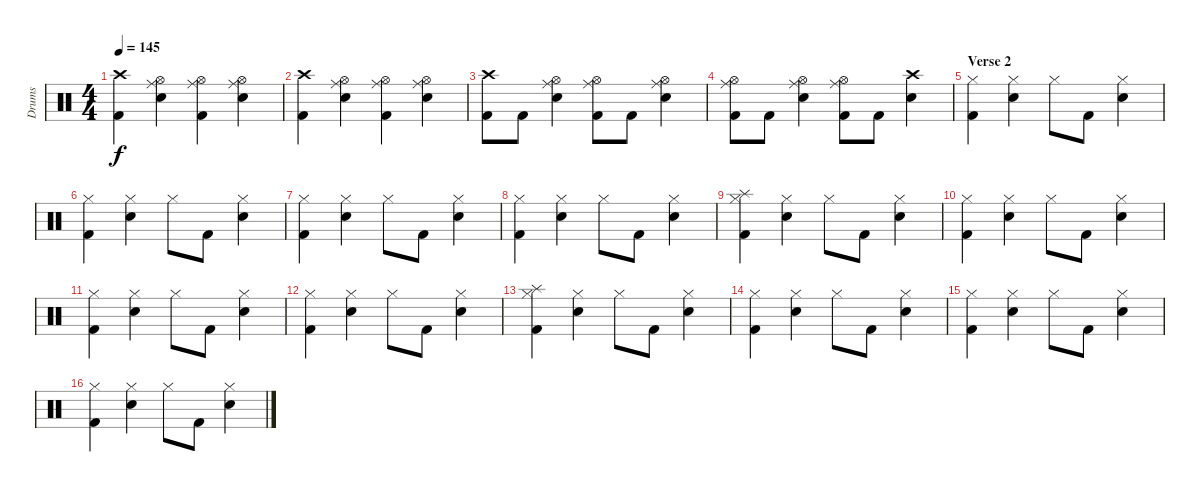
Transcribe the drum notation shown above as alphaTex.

\track ("Drums" "Drums") {instrument percussion}
\staff {score}
\articulation defaults
\ts (4 4)
\tempo 145
\clef neutral
\ks c
("Crash high (hit)" "Kick (hit) 2").4{dy f} ("Hi-Hat (open)" "Ride (middle)" "Snare (hit) 2").4 ("Hi-Hat (open)" "Ride (middle)" "Kick (hit) 2").4 ("Hi-Hat (open)" "Ride (middle)" "Snare (hit) 2").4 |
("Crash high (hit)" "Kick (hit) 2").4 ("Hi-Hat (open)" "Ride (middle)" "Snare (hit) 2").4 ("Hi-Hat (open)" "Ride (middle)" "Kick (hit) 2").4 ("Hi-Hat (open)" "Ride (middle)" "Snare (hit) 2").4 |
("Crash high (hit)" "Kick (hit) 2").8 "Kick (hit) 2".8 ("Hi-Hat (open)" "Ride (middle)" "Snare (hit) 2").4 ("Hi-Hat (open)" "Ride (middle)" "Kick (hit) 2").8 "Kick (hit) 2".8 ("Hi-Hat (open)" "Ride (middle)" "Snare (hit) 2").4 |
("Hi-Hat (open)" "Ride (middle)" "Kick (hit) 2").8 "Kick (hit) 2".8 ("Hi-Hat (open)" "Ride (middle)" "Snare (hit) 2").4 ("Hi-Hat (open)" "Ride (middle)" "Kick (hit) 2").8 "Kick (hit) 2".8 ("Crash high (hit)" "Snare (hit) 2").4 |
\section ("" "Verse 2")
("Hi-Hat (closed)" "Kick (hit) 2").4 ("Hi-Hat (closed)" "Snare (hit) 2").4 "Hi-Hat (closed)".8 "Kick (hit) 2".8 ("Hi-Hat (closed)" "Snare (hit) 2").4 |
("Hi-Hat (closed)" "Kick (hit) 2").4 ("Hi-Hat (closed)" "Snare (hit) 2").4 "Hi-Hat (closed)".8 "Kick (hit) 2".8 ("Hi-Hat (closed)" "Snare (hit) 2").4 |
("Hi-Hat (closed)" "Kick (hit) 2").4 ("Hi-Hat (closed)" "Snare (hit) 2").4 "Hi-Hat (closed)".8 "Kick (hit) 2".8 ("Hi-Hat (closed)" "Snare (hit) 2").4 |
("Hi-Hat (closed)" "Kick (hit) 2").4 ("Hi-Hat (closed)" "Snare (hit) 2").4 "Hi-Hat (closed)".8 "Kick (hit) 2".8 ("Hi-Hat (closed)" "Snare (hit) 2").4 |
("Splash (hit)" "Hi-Hat (closed)" "Kick (hit) 2").4 ("Hi-Hat (closed)" "Snare (hit) 2").4 "Hi-Hat (closed)".8 "Kick (hit) 2".8 ("Hi-Hat (closed)" "Snare (hit) 2").4 |
("Hi-Hat (closed)" "Kick (hit) 2").4 ("Hi-Hat (closed)" "Snare (hit) 2").4 "Hi-Hat (closed)".8 "Kick (hit) 2".8 ("Hi-Hat (closed)" "Snare (hit) 2").4 |
("Hi-Hat (closed)" "Kick (hit) 2").4 ("Hi-Hat (closed)" "Snare (hit) 2").4 "Hi-Hat (closed)".8 "Kick (hit) 2".8 ("Hi-Hat (closed)" "Snare (hit) 2").4 |
("Hi-Hat (closed)" "Kick (hit) 2").4 ("Hi-Hat (closed)" "Snare (hit) 2").4 "Hi-Hat (closed)".8 "Kick (hit) 2".8 ("Hi-Hat (closed)" "Snare (hit) 2").4 |
("Splash (hit)" "Hi-Hat (closed)" "Kick (hit) 2").4 ("Hi-Hat (closed)" "Snare (hit) 2").4 "Hi-Hat (closed)".8 "Kick (hit) 2".8 ("Hi-Hat (closed)" "Snare (hit) 2").4 |
("Hi-Hat (closed)" "Kick (hit) 2").4 ("Hi-Hat (closed)" "Snare (hit) 2").4 "Hi-Hat (closed)".8 "Kick (hit) 2".8 ("Hi-Hat (closed)" "Snare (hit) 2").4 |
("Hi-Hat (closed)" "Kick (hit) 2").4 ("Hi-Hat (closed)" "Snare (hit) 2").4 "Hi-Hat (closed)".8 "Kick (hit) 2".8 ("Hi-Hat (closed)" "Snare (hit) 2").4 |
("Hi-Hat (closed)" "Kick (hit) 2").4 ("Hi-Hat (closed)" "Snare (hit) 2").4 "Hi-Hat (closed)".8 "Kick (hit) 2".8 ("Hi-Hat (closed)" "Snare (hit) 2").4
